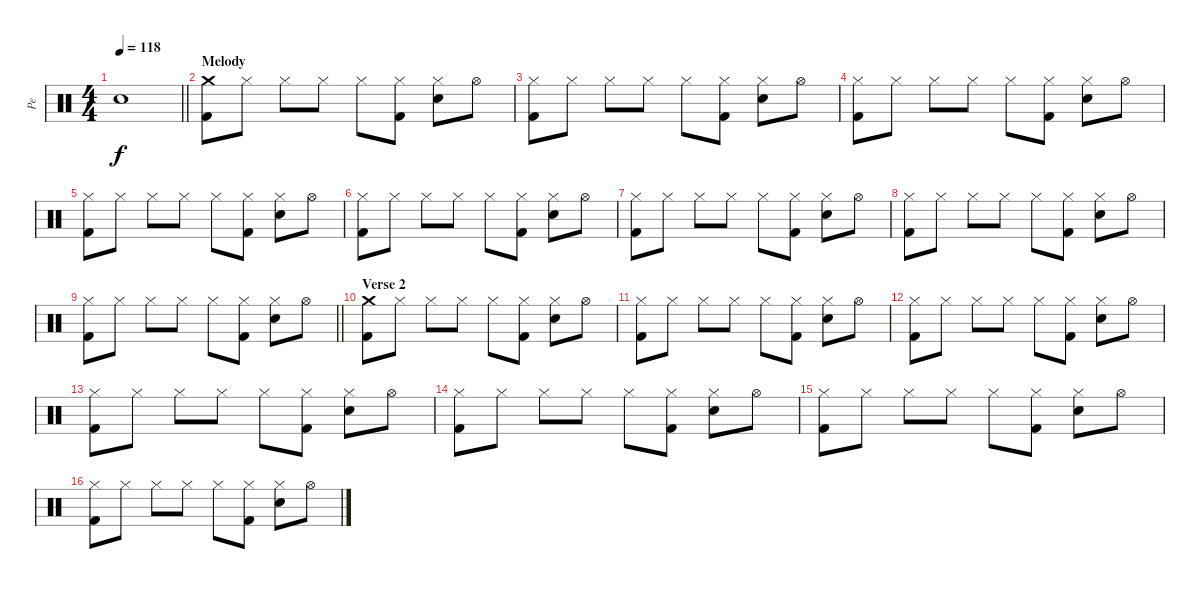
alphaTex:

\track ("Pe" "Pe") {instrument percussion}
\staff {score}
\articulation defaults
\ts (4 4)
\tempo 118
\clef neutral
\barLineRight lightlight
\ks c "Snare (hit)"{t}.1{dy f}
|
\section ("" "Melody")
("Crash medium (hit)" "Kick (hit) 2").8 "Hi-Hat (closed)".8 "Hi-Hat (closed)".8 "Hi-Hat (closed)".8 "Hi-Hat (closed)".8 ("Hi-Hat (closed)" "Kick (hit) 2").8 ("Hi-Hat (closed)" "Electric Snare (hit)").8 "Hi-Hat (open)".8 |
("Hi-Hat (closed)" "Kick (hit) 2").8 "Hi-Hat (closed)".8 "Hi-Hat (closed)".8 "Hi-Hat (closed)".8 "Hi-Hat (closed)".8 ("Hi-Hat (closed)" "Kick (hit) 2").8 ("Hi-Hat (closed)" "Electric Snare (hit)").8 "Hi-Hat (open)".8 |
("Hi-Hat (closed)" "Kick (hit) 2").8 "Hi-Hat (closed)".8 "Hi-Hat (closed)".8 "Hi-Hat (closed)".8 "Hi-Hat (closed)".8 ("Hi-Hat (closed)" "Kick (hit) 2").8 ("Hi-Hat (closed)" "Electric Snare (hit)").8 "Hi-Hat (open)".8 |
("Hi-Hat (closed)" "Kick (hit) 2").8 "Hi-Hat (closed)".8 "Hi-Hat (closed)".8 "Hi-Hat (closed)".8 "Hi-Hat (closed)".8 ("Hi-Hat (closed)" "Kick (hit) 2").8 ("Hi-Hat (closed)" "Electric Snare (hit)").8 "Hi-Hat (open)".8 |
("Hi-Hat (closed)" "Kick (hit) 2").8 "Hi-Hat (closed)".8 "Hi-Hat (closed)".8 "Hi-Hat (closed)".8 "Hi-Hat (closed)".8 ("Hi-Hat (closed)" "Kick (hit) 2").8 ("Hi-Hat (closed)" "Electric Snare (hit)").8 "Hi-Hat (open)".8 |
("Hi-Hat (closed)" "Kick (hit) 2").8 "Hi-Hat (closed)".8 "Hi-Hat (closed)".8 "Hi-Hat (closed)".8 "Hi-Hat (closed)".8 ("Hi-Hat (closed)" "Kick (hit) 2").8 ("Hi-Hat (closed)" "Electric Snare (hit)").8 "Hi-Hat (open)".8 |
("Hi-Hat (closed)" "Kick (hit) 2").8 "Hi-Hat (closed)".8 "Hi-Hat (closed)".8 "Hi-Hat (closed)".8 "Hi-Hat (closed)".8 ("Hi-Hat (closed)" "Kick (hit) 2").8 ("Hi-Hat (closed)" "Electric Snare (hit)").8 "Hi-Hat (open)".8 |
\barLineRight lightlight
("Hi-Hat (closed)" "Kick (hit) 2").8 "Hi-Hat (closed)".8 "Hi-Hat (closed)".8 "Hi-Hat (closed)".8 "Hi-Hat (closed)".8 ("Hi-Hat (closed)" "Kick (hit) 2").8 ("Hi-Hat (closed)" "Electric Snare (hit)").8 "Hi-Hat (open)".8 |
\section ("" "Verse 2")
("Crash medium (hit)" "Kick (hit) 2").8 "Hi-Hat (closed)".8 "Hi-Hat (closed)".8 "Hi-Hat (closed)".8 "Hi-Hat (closed)".8 ("Hi-Hat (closed)" "Kick (hit) 2").8 ("Hi-Hat (closed)" "Electric Snare (hit)").8 "Hi-Hat (open)".8 |
("Hi-Hat (closed)" "Kick (hit) 2").8 "Hi-Hat (closed)".8 "Hi-Hat (closed)".8 "Hi-Hat (closed)".8 "Hi-Hat (closed)".8 ("Hi-Hat (closed)" "Kick (hit) 2").8 ("Hi-Hat (closed)" "Electric Snare (hit)").8 "Hi-Hat (open)".8 |
("Hi-Hat (closed)" "Kick (hit) 2").8 "Hi-Hat (closed)".8 "Hi-Hat (closed)".8 "Hi-Hat (closed)".8 "Hi-Hat (closed)".8 ("Hi-Hat (closed)" "Kick (hit) 2").8 ("Hi-Hat (closed)" "Electric Snare (hit)").8 "Hi-Hat (open)".8 |
("Hi-Hat (closed)" "Kick (hit) 2").8 "Hi-Hat (closed)".8 "Hi-Hat (closed)".8 "Hi-Hat (closed)".8 "Hi-Hat (closed)".8 ("Hi-Hat (closed)" "Kick (hit) 2").8 ("Hi-Hat (closed)" "Electric Snare (hit)").8 "Hi-Hat (open)".8 |
("Hi-Hat (closed)" "Kick (hit) 2").8 "Hi-Hat (closed)".8 "Hi-Hat (closed)".8 "Hi-Hat (closed)".8 "Hi-Hat (closed)".8 ("Hi-Hat (closed)" "Kick (hit) 2").8 ("Hi-Hat (closed)" "Electric Snare (hit)").8 "Hi-Hat (open)".8 |
("Hi-Hat (closed)" "Kick (hit) 2").8 "Hi-Hat (closed)".8 "Hi-Hat (closed)".8 "Hi-Hat (closed)".8 "Hi-Hat (closed)".8 ("Hi-Hat (closed)" "Kick (hit) 2").8 ("Hi-Hat (closed)" "Electric Snare (hit)").8 "Hi-Hat (open)".8 |
("Hi-Hat (closed)" "Kick (hit) 2").8 "Hi-Hat (closed)".8 "Hi-Hat (closed)".8 "Hi-Hat (closed)".8 "Hi-Hat (closed)".8 ("Hi-Hat (closed)" "Kick (hit) 2").8 ("Hi-Hat (closed)" "Electric Snare (hit)").8 "Hi-Hat (open)".8
